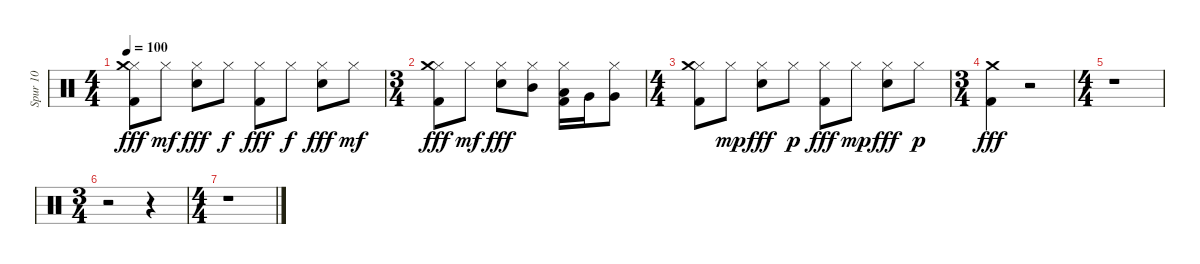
\track ("Spur 10" "Spur 10") {instrument percussion}
\staff {score}
\articulation defaults
\ts (4 4)
\tempo 100
\clef neutral
\ks c
("Hi-Hat (closed)" "Kick (hit) 2" "Crash medium (hit)").8{dy fff} "Hi-Hat (closed)".8{dy mf} ("Hi-Hat (closed)" "Metronome (bell)").8{dy fff} "Hi-Hat (closed)".8{dy f} ("Hi-Hat (closed)" "Kick (hit) 2").8{dy fff} "Hi-Hat (closed)".8{dy f} ("Hi-Hat (closed)" "Metronome (bell)").8{dy fff} "Hi-Hat (closed)".8{dy mf} |
\ts (3 4)
("Hi-Hat (closed)" "Kick (hit) 2" "Crash medium (hit)").8{dy fff} "Hi-Hat (closed)".8{dy mf} ("Hi-Hat (closed)" "Metronome (bell)").8{dy fff} ("Hi-Hat (closed)" "Mid Tom (hit)").8 ("Hi-Hat (closed)" "Kick (hit) 2" "Low Tom (hit)").16 "Very Low Tom (hit)".16 ("Hi-Hat (closed)" "Very Low Tom (hit)").8 |
\ts (4 4)
("Hi-Hat (closed)" "Crash medium (hit)" "Kick (hit) 2").8 "Hi-Hat (closed)".8{dy mp} ("Hi-Hat (closed)" "Metronome (bell)").8{dy fff} "Hi-Hat (closed)".8{dy p} ("Hi-Hat (closed)" "Kick (hit) 2").8{dy fff} "Hi-Hat (closed)".8{dy mp} ("Hi-Hat (closed)" "Metronome (bell)").8{dy fff} "Hi-Hat (closed)".8{dy p} |
\ts (3 4)
("Kick (hit) 2" "Crash medium (hit)").4{dy fff} r.2 |
\ts (4 4)
r.1 |
\ts (3 4)
r.2 r.4 |
\ts (4 4)
r.1
